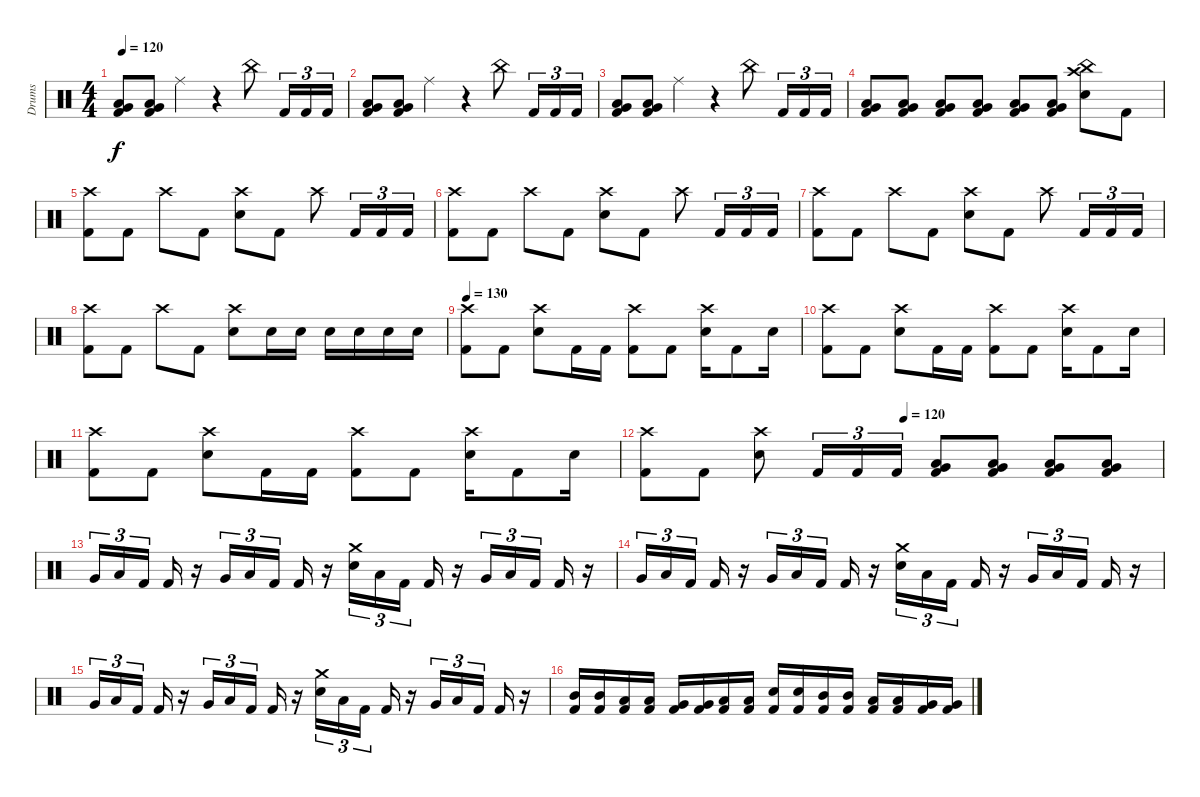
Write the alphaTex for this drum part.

\track ("Drums" "Drums") {instrument percussion}
\staff {score}
\articulation defaults
\ts (4 4)
\tempo 120
\clef neutral
\ks c
("Very Low Tom (hit)" "Low Floor Tom (hit)" "Kick (hit) 2").8{dy f} ("Very Low Tom (hit)" "Low Floor Tom (hit)" "Kick (hit) 2").8 "Ride (middle)".4 r.4 "China (hit)".8 "Kick (hit) 2".16{tu (3 2)} "Kick (hit) 2".16{tu (3 2)} "Kick (hit) 2".16{tu (3 2)} |
("Very Low Tom (hit)" "Low Floor Tom (hit)" "Kick (hit) 2").8 ("Very Low Tom (hit)" "Low Floor Tom (hit)" "Kick (hit) 2").8 "Ride (middle)".4 r.4 "China (hit)".8 "Kick (hit) 2".16{tu (3 2)} "Kick (hit) 2".16{tu (3 2)} "Kick (hit) 2".16{tu (3 2)} |
("Very Low Tom (hit)" "Low Floor Tom (hit)" "Kick (hit) 2").8 ("Very Low Tom (hit)" "Low Floor Tom (hit)" "Kick (hit) 2").8 "Ride (middle)".4 r.4 "China (hit)".8 "Kick (hit) 2".16{tu (3 2)} "Kick (hit) 2".16{tu (3 2)} "Kick (hit) 2".16{tu (3 2)} |
("Very Low Tom (hit)" "Low Floor Tom (hit)" "Kick (hit) 2").8 ("Very Low Tom (hit)" "Low Floor Tom (hit)" "Kick (hit) 2").8 ("Very Low Tom (hit)" "Low Floor Tom (hit)" "Kick (hit) 2").8 ("Very Low Tom (hit)" "Low Floor Tom (hit)" "Kick (hit) 2").8 ("Very Low Tom (hit)" "Low Floor Tom (hit)" "Kick (hit) 2").8 ("Very Low Tom (hit)" "Low Floor Tom (hit)" "Kick (hit) 2").8 ("Crash high (hit)" "China (hit)" "Snare (hit) 2").8 "Kick (hit) 2".8 |
("Crash high (hit)" "Kick (hit) 2").8 "Kick (hit) 2".8 "Crash high (hit)".8 "Kick (hit) 2".8 ("Crash high (hit)" "Snare (hit) 2").8 "Kick (hit) 2".8 "Crash high (hit)".8 "Kick (hit) 2".16{tu (3 2)} "Kick (hit) 2".16{tu (3 2)} "Kick (hit) 2".16{tu (3 2)} |
("Crash high (hit)" "Kick (hit) 2").8 "Kick (hit) 2".8 "Crash high (hit)".8 "Kick (hit) 2".8 ("Crash high (hit)" "Snare (hit) 2").8 "Kick (hit) 2".8 "Crash high (hit)".8 "Kick (hit) 2".16{tu (3 2)} "Kick (hit) 2".16{tu (3 2)} "Kick (hit) 2".16{tu (3 2)} |
("Crash high (hit)" "Kick (hit) 2").8 "Kick (hit) 2".8 "Crash high (hit)".8 "Kick (hit) 2".8 ("Crash high (hit)" "Snare (hit) 2").8 "Kick (hit) 2".8 "Crash high (hit)".8 "Kick (hit) 2".16{tu (3 2)} "Kick (hit) 2".16{tu (3 2)} "Kick (hit) 2".16{tu (3 2)} |
("Crash high (hit)" "Kick (hit) 2").8 "Kick (hit) 2".8 "Crash high (hit)".8 "Kick (hit) 2".8 ("Crash high (hit)" "Snare (hit) 2").8 "Snare (hit) 2".16 "Snare (hit) 2".16 "Snare (hit) 2".16 "Snare (hit) 2".16 "Snare (hit) 2".16 "Snare (hit) 2".16 |
\tempo 130
("Crash high (hit)" "Kick (hit) 2").8 "Kick (hit) 2".8 ("Crash high (hit)" "Snare (hit) 2").8 "Kick (hit) 2".16 "Kick (hit) 2".16 ("Crash high (hit)" "Kick (hit) 2").8 "Kick (hit) 2".8 ("Crash high (hit)" "Snare (hit) 2").16 "Kick (hit) 2".8 "Snare (hit) 2".16 |
("Crash high (hit)" "Kick (hit) 2").8 "Kick (hit) 2".8 ("Crash high (hit)" "Snare (hit) 2").8 "Kick (hit) 2".16 "Kick (hit) 2".16 ("Crash high (hit)" "Kick (hit) 2").8 "Kick (hit) 2".8 ("Crash high (hit)" "Snare (hit) 2").16 "Kick (hit) 2".8 "Snare (hit) 2".16 |
("Crash high (hit)" "Kick (hit) 2").8 "Kick (hit) 2".8 ("Crash high (hit)" "Snare (hit) 2").8 "Kick (hit) 2".16 "Kick (hit) 2".16 ("Crash high (hit)" "Kick (hit) 2").8 "Kick (hit) 2".8 ("Crash high (hit)" "Snare (hit) 2").16 "Kick (hit) 2".8 "Snare (hit) 2".16 |
\tempo (120 0.5)
("Crash high (hit)" "Kick (hit) 2").8 "Kick (hit) 2".8 ("Crash high (hit)" "Snare (hit) 2").8 "Kick (hit) 2".16{tu (3 2)} "Kick (hit) 2".16{tu (3 2)} "Kick (hit) 2".16{tu (3 2)} ("Very Low Tom (hit)" "Low Floor Tom (hit)" "Kick (hit) 2").8 ("Very Low Tom (hit)" "Low Floor Tom (hit)" "Kick (hit) 2").8 ("Very Low Tom (hit)" "Low Floor Tom (hit)" "Kick (hit) 2").8 ("Very Low Tom (hit)" "Low Floor Tom (hit)" "Kick (hit) 2").8 |
"Very Low Tom (hit)".16{tu (3 2)} "Low Floor Tom (hit)".16{tu (3 2)} "Kick (hit) 2".16{tu (3 2)} "Kick (hit) 2".16 r.16 "Very Low Tom (hit)".16{tu (3 2)} "Low Floor Tom (hit)".16{tu (3 2)} "Kick (hit) 2".16{tu (3 2)} "Kick (hit) 2".16 r.16 ("Crash medium (hit)" "Snare (hit) 2").16{tu (3 2)} "Low Floor Tom (hit)".16{tu (3 2)} "Kick (hit) 2".16{tu (3 2)} "Kick (hit) 2".16 r.16 "Very Low Tom (hit)".16{tu (3 2)} "Low Floor Tom (hit)".16{tu (3 2)} "Kick (hit) 2".16{tu (3 2)} "Kick (hit) 2".16 r.16 |
"Very Low Tom (hit)".16{tu (3 2)} "Low Floor Tom (hit)".16{tu (3 2)} "Kick (hit) 2".16{tu (3 2)} "Kick (hit) 2".16 r.16 "Very Low Tom (hit)".16{tu (3 2)} "Low Floor Tom (hit)".16{tu (3 2)} "Kick (hit) 2".16{tu (3 2)} "Kick (hit) 2".16 r.16 ("Crash medium (hit)" "Snare (hit) 2").16{tu (3 2)} "Low Floor Tom (hit)".16{tu (3 2)} "Kick (hit) 2".16{tu (3 2)} "Kick (hit) 2".16 r.16 "Very Low Tom (hit)".16{tu (3 2)} "Low Floor Tom (hit)".16{tu (3 2)} "Kick (hit) 2".16{tu (3 2)} "Kick (hit) 2".16 r.16 |
"Very Low Tom (hit)".16{tu (3 2)} "Low Floor Tom (hit)".16{tu (3 2)} "Kick (hit) 2".16{tu (3 2)} "Kick (hit) 2".16 r.16 "Very Low Tom (hit)".16{tu (3 2)} "Low Floor Tom (hit)".16{tu (3 2)} "Kick (hit) 2".16{tu (3 2)} "Kick (hit) 2".16 r.16 ("Crash medium (hit)" "Snare (hit) 2").16{tu (3 2)} "Low Floor Tom (hit)".16{tu (3 2)} "Kick (hit) 2".16{tu (3 2)} "Kick (hit) 2".16 r.16 "Very Low Tom (hit)".16{tu (3 2)} "Low Floor Tom (hit)".16{tu (3 2)} "Kick (hit) 2".16{tu (3 2)} "Kick (hit) 2".16 r.16 |
("Kick (hit) 2" "Mid Tom (hit)").16 ("Kick (hit) 2" "Mid Tom (hit)").16 ("Kick (hit) 2" "Low Tom (hit)").16 ("Kick (hit) 2" "Low Tom (hit)").16 ("Kick (hit) 2" "Very Low Tom (hit)").16 ("Kick (hit) 2" "Very Low Tom (hit)").16 ("Kick (hit) 2" "Low Floor Tom (hit)").16 ("Kick (hit) 2" "Low Floor Tom (hit)").16 ("Kick (hit) 2" "Snare (hit) 2").16 ("Kick (hit) 2" "Snare (hit) 2").16 ("Kick (hit) 2" "Mid Tom (hit)").16 ("Kick (hit) 2" "Mid Tom (hit)").16 ("Kick (hit) 2" "Low Tom (hit)").16 ("Kick (hit) 2" "Low Tom (hit)").16 ("Kick (hit) 2" "Very Low Tom (hit)").16 ("Kick (hit) 2" "Very Low Tom (hit)").16
